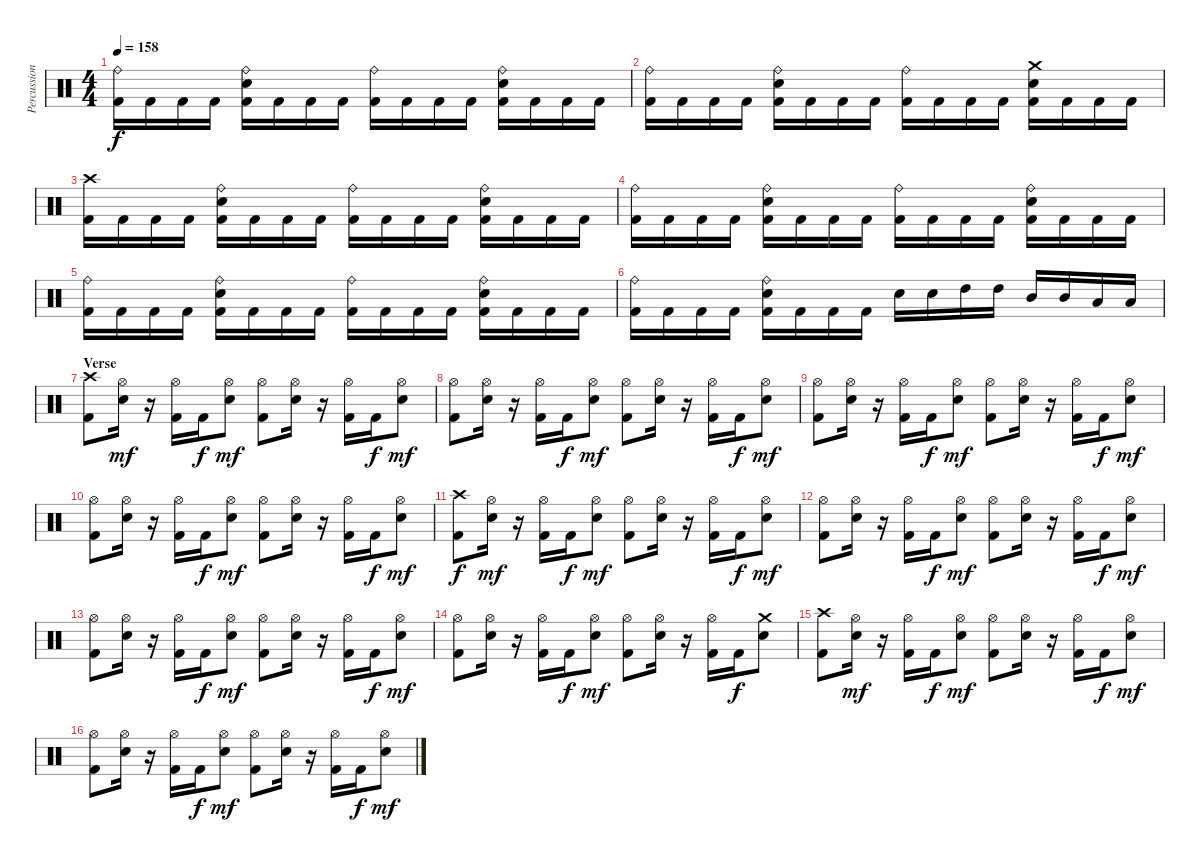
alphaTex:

\track ("Percussion" "Percussion") {instrument percussion}
\staff {score}
\articulation defaults
\ts (4 4)
\tempo 158
\clef neutral
\ks c
("Ride (bell)" "Kick (hit) 2").16{dy f} "Kick (hit) 2".16 "Kick (hit) 2".16 "Kick (hit) 2".16 ("Ride (bell)" "Electric Snare (hit)" "Kick (hit) 2").16 "Kick (hit) 2".16 "Kick (hit) 2".16 "Kick (hit) 2".16 ("Ride (bell)" "Kick (hit) 2").16 "Kick (hit) 2".16 "Kick (hit) 2".16 "Kick (hit) 2".16 ("Ride (bell)" "Electric Snare (hit)" "Kick (hit) 2").16 "Kick (hit) 2".16 "Kick (hit) 2".16 "Kick (hit) 2".16 |
("Ride (bell)" "Kick (hit) 2").16 "Kick (hit) 2".16 "Kick (hit) 2".16 "Kick (hit) 2".16 ("Ride (bell)" "Electric Snare (hit)" "Kick (hit) 2").16 "Kick (hit) 2".16 "Kick (hit) 2".16 "Kick (hit) 2".16 ("Ride (bell)" "Kick (hit) 2").16 "Kick (hit) 2".16 "Kick (hit) 2".16 "Kick (hit) 2".16 ("Crash medium (hit)" "Electric Snare (hit)" "Kick (hit) 2").16 "Kick (hit) 2".16 "Kick (hit) 2".16 "Kick (hit) 2".16 |
("Crash high (hit)" "Kick (hit) 2").16 "Kick (hit) 2".16 "Kick (hit) 2".16 "Kick (hit) 2".16 ("Ride (bell)" "Electric Snare (hit)" "Kick (hit) 2").16 "Kick (hit) 2".16 "Kick (hit) 2".16 "Kick (hit) 2".16 ("Ride (bell)" "Kick (hit) 2").16 "Kick (hit) 2".16 "Kick (hit) 2".16 "Kick (hit) 2".16 ("Ride (bell)" "Electric Snare (hit)" "Kick (hit) 2").16 "Kick (hit) 2".16 "Kick (hit) 2".16 "Kick (hit) 2".16 |
("Ride (bell)" "Kick (hit) 2").16 "Kick (hit) 2".16 "Kick (hit) 2".16 "Kick (hit) 2".16 ("Ride (bell)" "Electric Snare (hit)" "Kick (hit) 2").16 "Kick (hit) 2".16 "Kick (hit) 2".16 "Kick (hit) 2".16 ("Ride (bell)" "Kick (hit) 2").16 "Kick (hit) 2".16 "Kick (hit) 2".16 "Kick (hit) 2".16 ("Ride (bell)" "Electric Snare (hit)" "Kick (hit) 2").16 "Kick (hit) 2".16 "Kick (hit) 2".16 "Kick (hit) 2".16 |
("Ride (bell)" "Kick (hit) 2").16 "Kick (hit) 2".16 "Kick (hit) 2".16 "Kick (hit) 2".16 ("Ride (bell)" "Electric Snare (hit)" "Kick (hit) 2").16 "Kick (hit) 2".16 "Kick (hit) 2".16 "Kick (hit) 2".16 ("Ride (bell)" "Kick (hit) 2").16 "Kick (hit) 2".16 "Kick (hit) 2".16 "Kick (hit) 2".16 ("Ride (bell)" "Electric Snare (hit)" "Kick (hit) 2").16 "Kick (hit) 2".16 "Kick (hit) 2".16 "Kick (hit) 2".16 |
("Ride (bell)" "Kick (hit) 2").16 "Kick (hit) 2".16 "Kick (hit) 2".16 "Kick (hit) 2".16 ("Ride (bell)" "Electric Snare (hit)" "Kick (hit) 2").16 "Kick (hit) 2".16 "Kick (hit) 2".16 "Kick (hit) 2".16 "Electric Snare (hit)".16 "Electric Snare (hit)".16 "High Tom (hit)".16 "High Tom (hit)".16 "Mid Tom (hit)".16 "Mid Tom (hit)".16 "Low Tom (hit)".16 "Low Tom (hit)".16 |
\section ("" "Verse")
("Crash high (hit)" "Kick (hit) 2").8 ("Hi-Hat (open)" "Electric Snare (hit)").16{dy mf} r.16 ("Hi-Hat (open)" "Kick (hit) 2").16 "Kick (hit) 2".16{dy f} ("Hi-Hat (open)" "Electric Snare (hit)").8{dy mf} ("Hi-Hat (open)" "Kick (hit) 2").8 ("Hi-Hat (open)" "Electric Snare (hit)").16 r.16 ("Hi-Hat (open)" "Kick (hit) 2").16 "Kick (hit) 2".16{dy f} ("Hi-Hat (open)" "Electric Snare (hit)").8{dy mf} |
("Hi-Hat (open)" "Kick (hit) 2").8 ("Hi-Hat (open)" "Electric Snare (hit)").16 r.16 ("Hi-Hat (open)" "Kick (hit) 2").16 "Kick (hit) 2".16{dy f} ("Hi-Hat (open)" "Electric Snare (hit)").8{dy mf} ("Hi-Hat (open)" "Kick (hit) 2").8 ("Hi-Hat (open)" "Electric Snare (hit)").16 r.16 ("Hi-Hat (open)" "Kick (hit) 2").16 "Kick (hit) 2".16{dy f} ("Hi-Hat (open)" "Electric Snare (hit)").8{dy mf} |
("Hi-Hat (open)" "Kick (hit) 2").8 ("Hi-Hat (open)" "Electric Snare (hit)").16 r.16 ("Hi-Hat (open)" "Kick (hit) 2").16 "Kick (hit) 2".16{dy f} ("Hi-Hat (open)" "Electric Snare (hit)").8{dy mf} ("Hi-Hat (open)" "Kick (hit) 2").8 ("Hi-Hat (open)" "Electric Snare (hit)").16 r.16 ("Hi-Hat (open)" "Kick (hit) 2").16 "Kick (hit) 2".16{dy f} ("Hi-Hat (open)" "Electric Snare (hit)").8{dy mf} |
("Hi-Hat (open)" "Kick (hit) 2").8 ("Hi-Hat (open)" "Electric Snare (hit)").16 r.16 ("Hi-Hat (open)" "Kick (hit) 2").16 "Kick (hit) 2".16{dy f} ("Hi-Hat (open)" "Electric Snare (hit)").8{dy mf} ("Hi-Hat (open)" "Kick (hit) 2").8 ("Hi-Hat (open)" "Electric Snare (hit)").16 r.16 ("Hi-Hat (open)" "Kick (hit) 2").16 "Kick (hit) 2".16{dy f} ("Hi-Hat (open)" "Electric Snare (hit)").8{dy mf} |
("Crash high (hit)" "Kick (hit) 2").8{dy f} ("Hi-Hat (open)" "Electric Snare (hit)").16{dy mf} r.16 ("Hi-Hat (open)" "Kick (hit) 2").16 "Kick (hit) 2".16{dy f} ("Hi-Hat (open)" "Electric Snare (hit)").8{dy mf} ("Hi-Hat (open)" "Kick (hit) 2").8 ("Hi-Hat (open)" "Electric Snare (hit)").16 r.16 ("Hi-Hat (open)" "Kick (hit) 2").16 "Kick (hit) 2".16{dy f} ("Hi-Hat (open)" "Electric Snare (hit)").8{dy mf} |
("Hi-Hat (open)" "Kick (hit) 2").8 ("Hi-Hat (open)" "Electric Snare (hit)").16 r.16 ("Hi-Hat (open)" "Kick (hit) 2").16 "Kick (hit) 2".16{dy f} ("Hi-Hat (open)" "Electric Snare (hit)").8{dy mf} ("Hi-Hat (open)" "Kick (hit) 2").8 ("Hi-Hat (open)" "Electric Snare (hit)").16 r.16 ("Hi-Hat (open)" "Kick (hit) 2").16 "Kick (hit) 2".16{dy f} ("Hi-Hat (open)" "Electric Snare (hit)").8{dy mf} |
("Hi-Hat (open)" "Kick (hit) 2").8 ("Hi-Hat (open)" "Electric Snare (hit)").16 r.16 ("Hi-Hat (open)" "Kick (hit) 2").16 "Kick (hit) 2".16{dy f} ("Hi-Hat (open)" "Electric Snare (hit)").8{dy mf} ("Hi-Hat (open)" "Kick (hit) 2").8 ("Hi-Hat (open)" "Electric Snare (hit)").16 r.16 ("Hi-Hat (open)" "Kick (hit) 2").16 "Kick (hit) 2".16{dy f} ("Hi-Hat (open)" "Electric Snare (hit)").8{dy mf} |
("Hi-Hat (open)" "Kick (hit) 2").8 ("Hi-Hat (open)" "Electric Snare (hit)").16 r.16 ("Hi-Hat (open)" "Kick (hit) 2").16 "Kick (hit) 2".16{dy f} ("Hi-Hat (open)" "Electric Snare (hit)").8{dy mf} ("Hi-Hat (open)" "Kick (hit) 2").8 ("Hi-Hat (open)" "Electric Snare (hit)").16 r.16 ("Hi-Hat (open)" "Kick (hit) 2").16 "Kick (hit) 2".16{dy f} ("Crash medium (hit)" "Electric Snare (hit)").8 |
("Crash high (hit)" "Kick (hit) 2").8 ("Hi-Hat (open)" "Electric Snare (hit)").16{dy mf} r.16 ("Hi-Hat (open)" "Kick (hit) 2").16 "Kick (hit) 2".16{dy f} ("Hi-Hat (open)" "Electric Snare (hit)").8{dy mf} ("Hi-Hat (open)" "Kick (hit) 2").8 ("Hi-Hat (open)" "Electric Snare (hit)").16 r.16 ("Hi-Hat (open)" "Kick (hit) 2").16 "Kick (hit) 2".16{dy f} ("Hi-Hat (open)" "Electric Snare (hit)").8{dy mf} |
("Hi-Hat (open)" "Kick (hit) 2").8 ("Hi-Hat (open)" "Electric Snare (hit)").16 r.16 ("Hi-Hat (open)" "Kick (hit) 2").16 "Kick (hit) 2".16{dy f} ("Hi-Hat (open)" "Electric Snare (hit)").8{dy mf} ("Hi-Hat (open)" "Kick (hit) 2").8 ("Hi-Hat (open)" "Electric Snare (hit)").16 r.16 ("Hi-Hat (open)" "Kick (hit) 2").16 "Kick (hit) 2".16{dy f} ("Hi-Hat (open)" "Electric Snare (hit)").8{dy mf}
